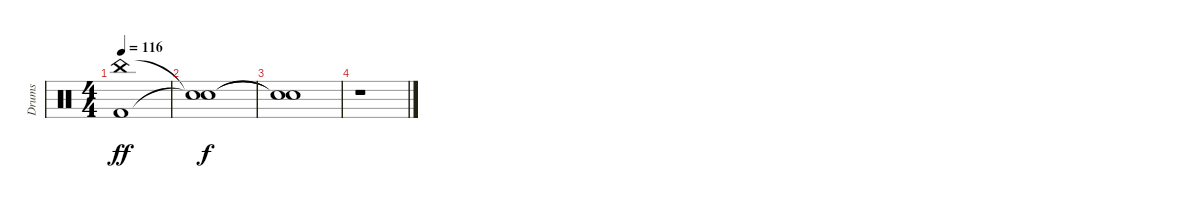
\track ("Drums" "Drums") {instrument percussion}
\staff {score}
\articulation defaults
\ts (4 4)
\tempo 116
\clef neutral
\ks c
("China (hit)" "Kick (hit) 2").1{dy ff} |
("Snare (hit)"{t} "Snare (hit)"{t}).1{dy f} |
("Snare (hit)"{t} "Snare (hit)"{t}).1 |
r.1
